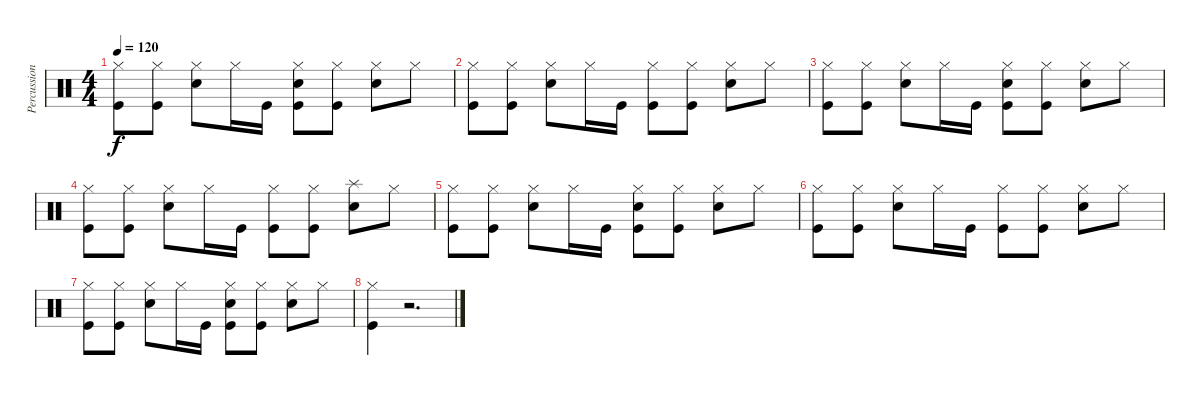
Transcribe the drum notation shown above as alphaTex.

\track ("Percussion" "Percussion") {instrument percussion}
\staff {score}
\articulation defaults
\ts (4 4)
\tempo 120
\clef neutral
\ks c
("Hi-Hat (closed)" "Kick (hit)").8{dy f} ("Hi-Hat (closed)" "Kick (hit)").8 ("Hi-Hat (closed)" "Snare (hit) 2").8 "Hi-Hat (closed)".16 "Kick (hit)".16 ("Hi-Hat (closed)" "Hand Clap (hit)" "Kick (hit)").8 ("Hi-Hat (closed)" "Kick (hit)").8 ("Hi-Hat (closed)" "Snare (hit) 2").8 "Hi-Hat (closed)".8 |
("Hi-Hat (closed)" "Kick (hit)").8 ("Hi-Hat (closed)" "Kick (hit)").8 ("Hi-Hat (closed)" "Snare (hit) 2").8 "Hi-Hat (closed)".16 "Kick (hit)".16 ("Hi-Hat (closed)" "Kick (hit)").8 ("Hi-Hat (closed)" "Kick (hit)").8 ("Hi-Hat (closed)" "Snare (hit) 2").8 "Hi-Hat (closed)".8 |
("Hi-Hat (closed)" "Kick (hit)").8 ("Hi-Hat (closed)" "Kick (hit)").8 ("Hi-Hat (closed)" "Snare (hit) 2").8 "Hi-Hat (closed)".16 "Kick (hit)".16 ("Hi-Hat (closed)" "Hand Clap (hit)" "Kick (hit)").8 ("Hi-Hat (closed)" "Kick (hit)").8 ("Hi-Hat (closed)" "Snare (hit) 2").8 "Hi-Hat (closed)".8 |
("Hi-Hat (closed)" "Kick (hit)").8 ("Hi-Hat (closed)" "Kick (hit)").8 ("Hi-Hat (closed)" "Snare (hit) 2").8 "Hi-Hat (closed)".16 "Kick (hit)".16 ("Hi-Hat (closed)" "Kick (hit)").8 ("Hi-Hat (closed)" "Kick (hit)").8 ("Splash (hit)" "Snare (hit) 2").8 "Hi-Hat (closed)".8 |
("Hi-Hat (closed)" "Kick (hit)").8 ("Hi-Hat (closed)" "Kick (hit)").8 ("Hi-Hat (closed)" "Snare (hit) 2").8 "Hi-Hat (closed)".16 "Kick (hit)".16 ("Hi-Hat (closed)" "Hand Clap (hit)" "Kick (hit)").8 ("Hi-Hat (closed)" "Kick (hit)").8 ("Hi-Hat (closed)" "Snare (hit) 2").8 "Hi-Hat (closed)".8 |
("Hi-Hat (closed)" "Kick (hit)").8 ("Hi-Hat (closed)" "Kick (hit)").8 ("Hi-Hat (closed)" "Snare (hit) 2").8 "Hi-Hat (closed)".16 "Kick (hit)".16 ("Hi-Hat (closed)" "Kick (hit)").8 ("Hi-Hat (closed)" "Kick (hit)").8 ("Hi-Hat (closed)" "Snare (hit) 2").8 "Hi-Hat (closed)".8 |
("Hi-Hat (closed)" "Kick (hit)").8 ("Hi-Hat (closed)" "Kick (hit)").8 ("Hi-Hat (closed)" "Snare (hit) 2").8 "Hi-Hat (closed)".16 "Kick (hit)".16 ("Hi-Hat (closed)" "Hand Clap (hit)" "Kick (hit)").8 ("Hi-Hat (closed)" "Kick (hit)").8 ("Hi-Hat (closed)" "Snare (hit) 2").8 "Hi-Hat (closed)".8 |
("Hi-Hat (closed)" "Kick (hit)").4 r.2{d}
